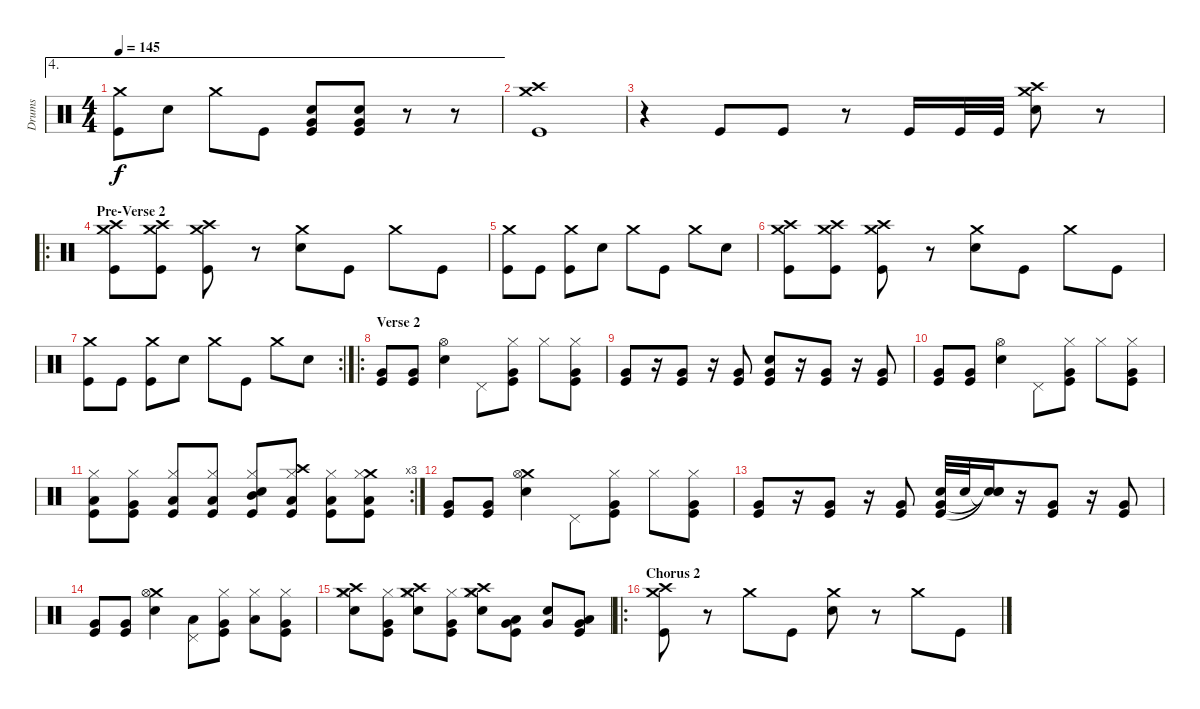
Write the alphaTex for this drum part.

\track ("Drums" "Drums") {instrument percussion}
\staff {score}
\articulation defaults
\ae 4
\ts (4 4)
\tempo 145
\clef neutral
\ks c
("Crash medium (hit)" "Kick (hit)").8{dy f} "Electric Snare (hit)".8 "Crash medium (hit)".8 "Kick (hit)".8 ("Electric Snare (hit)" "Very Low Tom (hit)" "Kick (hit)").8 ("Electric Snare (hit)" "Very Low Tom (hit)" "Kick (hit)").8 r.8 r.8 |
("Crash medium (hit)" "Crash high (hit)" "Kick (hit)").1 |
r.4 "Kick (hit)".8 "Kick (hit)".8 r.8 "Kick (hit)".16 "Kick (hit)".32 "Kick (hit)".32 ("Crash medium (hit)" "Crash high (hit)" "Electric Snare (hit)").8 r.8 |
\ro
\section ("" "Pre-Verse 2")
("Crash medium (hit)" "Crash high (hit)" "Kick (hit)").8 ("Crash medium (hit)" "Crash high (hit)" "Kick (hit)").8 ("Crash medium (hit)" "Crash high (hit)" "Kick (hit)").8 r.8 ("Crash medium (hit)" "Electric Snare (hit)").8 "Kick (hit)".8 "Crash medium (hit)".8 "Kick (hit)".8 |
("Crash medium (hit)" "Kick (hit)").8 "Kick (hit)".8 ("Crash medium (hit)" "Kick (hit)").8 "Electric Snare (hit)".8 "Crash medium (hit)".8 "Kick (hit)".8 "Crash medium (hit)".8 "Electric Snare (hit)".8 |
("Crash medium (hit)" "Crash high (hit)" "Kick (hit)").8 ("Crash medium (hit)" "Crash high (hit)" "Kick (hit)").8 ("Crash medium (hit)" "Crash high (hit)" "Kick (hit)").8 r.8 ("Crash medium (hit)" "Electric Snare (hit)").8 "Kick (hit)".8 "Crash medium (hit)".8 "Kick (hit)".8 |
\rc 2
("Crash medium (hit)" "Kick (hit)").8 "Kick (hit)".8 ("Crash medium (hit)" "Kick (hit)").8 "Electric Snare (hit)".8 "Crash medium (hit)".8 "Kick (hit)".8 "Crash medium (hit)".8 "Electric Snare (hit)".8 |
\ro
\section ("" "Verse 2")
("Very Low Tom (hit)" "Kick (hit)").8 ("Very Low Tom (hit)" "Kick (hit)").8 ("Hi-Hat (open)" "Electric Snare (hit)").4 "Pedal Hi-Hat (hit)".8 ("Hi-Hat (closed)" "Very Low Tom (hit)" "Kick (hit)").8 "Hi-Hat (closed)".8 ("Hi-Hat (closed)" "Very Low Tom (hit)" "Kick (hit)").8 |
("Very Low Tom (hit)" "Kick (hit)").8 r.16 ("Very Low Tom (hit)" "Kick (hit)").8 r.16 ("Very Low Tom (hit)" "Kick (hit)").8 ("Electric Snare (hit)" "Very Low Tom (hit)" "Kick (hit)").8 r.16 ("Very Low Tom (hit)" "Kick (hit)").8 r.16 ("Very Low Tom (hit)" "Kick (hit)").8 |
("Very Low Tom (hit)" "Kick (hit)").8 ("Very Low Tom (hit)" "Kick (hit)").8 ("Hi-Hat (open)" "Electric Snare (hit)").4 "Pedal Hi-Hat (hit)".8 ("Hi-Hat (closed)" "Very Low Tom (hit)" "Kick (hit)").8 "Hi-Hat (closed)".8 ("Hi-Hat (closed)" "Very Low Tom (hit)" "Kick (hit)").8 |
\rc 3
("Hi-Hat (closed)" "Low Tom (hit)" "Kick (hit)").8 ("Hi-Hat (closed)" "Very Low Tom (hit)" "Kick (hit)").8 ("Hi-Hat (closed)" "Low Floor Tom (hit)" "Kick (hit)").8 ("Hi-Hat (closed)" "Low Floor Tom (hit)" "Kick (hit)").8 ("Hi-Hat (closed)" "Electric Snare (hit)" "Mid Tom (hit)" "Kick (hit)").8 ("Crash high (hit)" "Hi-Hat (closed)" "Low Tom (hit)" "Kick (hit)").8 ("Hi-Hat (closed)" "Low Floor Tom (hit)" "Kick (hit)").8 ("Crash medium (hit)" "Hi-Hat (closed)" "Low Floor Tom (hit)" "Kick (hit)").8 |
("Very Low Tom (hit)" "Kick (hit)").8 ("Very Low Tom (hit)" "Kick (hit)").8 ("Crash medium (hit)" "Hi-Hat (open)" "Electric Snare (hit)").4 "Pedal Hi-Hat (hit)".8 ("Hi-Hat (closed)" "Very Low Tom (hit)" "Kick (hit)").8 "Hi-Hat (closed)".8 ("Hi-Hat (closed)" "Very Low Tom (hit)" "Kick (hit)").8 |
("Very Low Tom (hit)" "Kick (hit)").8 r.16 ("Very Low Tom (hit)" "Kick (hit)").8 r.16 ("Very Low Tom (hit)" "Kick (hit)").8 ("Electric Snare (hit)" "Very Low Tom (hit)" "Kick (hit)").32 "Electric Snare (hit)".32 ("Snare (hit)"{t} "Snare (hit)"{t} "Snare (hit)"{t}).16 r.16 ("Very Low Tom (hit)" "Kick (hit)").8 r.16 ("Very Low Tom (hit)" "Kick (hit)").8 |
("Very Low Tom (hit)" "Kick (hit)").8 ("Very Low Tom (hit)" "Kick (hit)").8 ("Crash medium (hit)" "Hi-Hat (open)" "Electric Snare (hit)").4 ("Pedal Hi-Hat (hit)" "Low Tom (hit)").8 ("Hi-Hat (closed)" "Very Low Tom (hit)" "Kick (hit)").8 ("Hi-Hat (closed)" "Low Tom (hit)").8 ("Hi-Hat (closed)" "Very Low Tom (hit)" "Kick (hit)").8 |
("Crash medium (hit)" "Crash high (hit)" "Hi-Hat (closed)" "Electric Snare (hit)").8 ("Hi-Hat (closed)" "Very Low Tom (hit)" "Kick (hit)").8 ("Crash medium (hit)" "Crash high (hit)" "Hi-Hat (closed)" "Electric Snare (hit)").8 ("Hi-Hat (closed)" "Very Low Tom (hit)" "Kick (hit)").8 ("Crash medium (hit)" "Crash high (hit)" "Hi-Hat (closed)" "Electric Snare (hit)").8 ("Low Tom (hit)" "Very Low Tom (hit)" "Kick (hit)").8 ("Very Low Tom (hit)" "Electric Snare (hit)").8 ("Low Floor Tom (hit)" "Very Low Tom (hit)" "Kick (hit)").8 |
\ro
\section ("" "Chorus 2")
("Crash medium (hit)" "Crash high (hit)" "Kick (hit)").8 r.8 "Crash medium (hit)".8 "Kick (hit)".8 ("Crash medium (hit)" "Electric Snare (hit)").8 r.8 "Crash medium (hit)".8 "Kick (hit)".8
